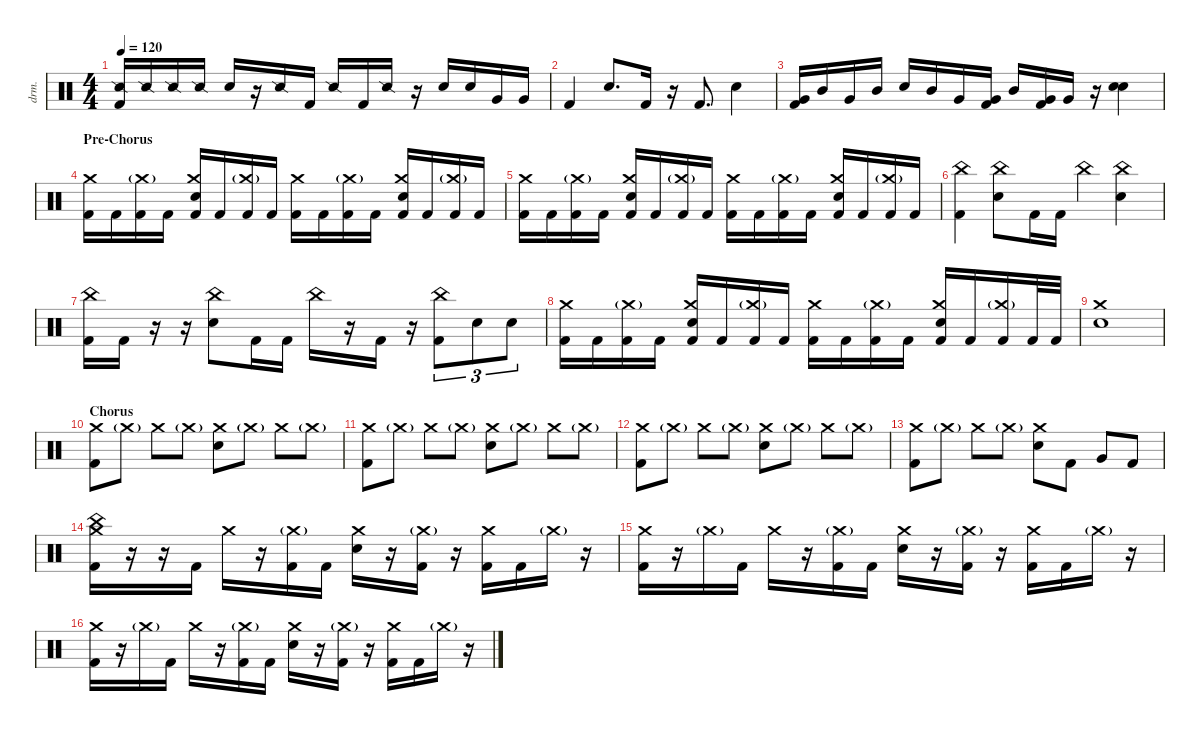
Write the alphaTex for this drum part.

\defaultSystemsLayout 4
\hideDynamics
\bracketExtendMode nobrackets
\track ("Drums - Mario" "drm.") {instrument percussion}
\staff {score}
\articulation defaults
\ts (4 4)
\tempo 120
\clef neutral
\ks c
("Kick (hit) 2" "Snare (side stick) 2").16{dy ff} "Snare (side stick) 2".16 "Snare (side stick) 2".16 "Snare (side stick) 2".16 "Snare (hit) 2".16 r.16 "Snare (side stick) 2".16 "Kick (hit) 2".16 "Snare (side stick) 2".16 "Kick (hit) 2".16 "Snare (side stick) 2".16 r.16 "Snare (hit) 2".16 "Snare (hit) 2".16 "Very Low Tom (hit)".16 "Very Low Tom (hit)".16 |
"Kick (hit) 2".4 "Snare (hit) 2".8{d} "Kick (hit) 2".16 r.16 "Kick (hit) 2".8{d} "Snare (hit) 2".4 |
("Kick (hit) 2" "Very Low Tom (hit)").16 "Mid Tom (hit)".16 "Very Low Tom (hit)".16 "Mid Tom (hit)".16 "Snare (hit) 2".16 "Mid Tom (hit)".16 "Very Low Tom (hit)".16 ("Very Low Tom (hit)" "Kick (hit) 2").16 "Mid Tom (hit)".16 ("Very Low Tom (hit)" "Kick (hit) 2").16 "Very Low Tom (hit)".16 r.16 ("Snare (hit) 2" "Snare (hit) 2").4 |
\section ("" "Pre-Chorus")
("Kick (hit) 2" "Crash medium (hit)").16{beam Down} "Kick (hit) 2".16{beam Down} ("Kick (hit) 2" "Crash medium (hit)"{g}).16{beam Down} "Kick (hit) 2".16{beam Down} ("Kick (hit) 2" "Crash medium (hit)" "Snare (hit) 2").16{beam Up} "Kick (hit) 2".16{beam Up} ("Kick (hit) 2" "Crash medium (hit)"{g}).16{beam Up} "Kick (hit) 2".16{beam Up} ("Kick (hit) 2" "Crash medium (hit)").16{beam Down} "Kick (hit) 2".16{beam Down} ("Kick (hit) 2" "Crash medium (hit)"{g}).16{beam Down} "Kick (hit) 2".16{beam Down} ("Kick (hit) 2" "Crash medium (hit)" "Snare (hit) 2").16{beam Up} "Kick (hit) 2".16{beam Up} ("Kick (hit) 2" "Crash medium (hit)"{g}).16{beam Up} "Kick (hit) 2".16{beam Up} |
("Kick (hit) 2" "Crash medium (hit)").16{beam Down} "Kick (hit) 2".16{beam Down} ("Kick (hit) 2" "Crash medium (hit)"{g}).16{beam Down} "Kick (hit) 2".16{beam Down} ("Kick (hit) 2" "Crash medium (hit)" "Snare (hit) 2").16{beam Up} "Kick (hit) 2".16{beam Up} ("Kick (hit) 2" "Crash medium (hit)"{g}).16{beam Up} "Kick (hit) 2".16{beam Up} ("Kick (hit) 2" "Crash medium (hit)").16{beam Down} "Kick (hit) 2".16{beam Down} ("Kick (hit) 2" "Crash medium (hit)"{g}).16{beam Down} "Kick (hit) 2".16{beam Down} ("Kick (hit) 2" "Crash medium (hit)" "Snare (hit) 2").16{beam Up} "Kick (hit) 2".16{beam Up} ("Kick (hit) 2" "Crash medium (hit)"{g}).16{beam Up} "Kick (hit) 2".16{beam Up} |
("Kick (hit) 2" "China (hit)").4{beam Down} ("China (hit)" "Snare (hit) 2").8{beam Down} "Kick (hit) 2".16{beam Down} "Kick (hit) 2".16{beam Down} "China (hit)".4{beam Down} ("Snare (hit) 2" "China (hit)").4{beam Down} |
("Kick (hit) 2" "China (hit)").16{beam Down} "Kick (hit) 2".16{beam Down} r.16{beam Down} r.16{beam Down} ("China (hit)" "Snare (hit) 2").8{beam Down} "Kick (hit) 2".16{beam Down} "Kick (hit) 2".16{beam Down} "China (hit)".16{beam Down} r.16{beam Down} "Kick (hit) 2".16{beam Down} r.16{beam Down} ("Kick (hit) 2" "China (hit)").8{tu (3 2) beam Down} "Snare (hit) 2".8{tu (3 2) beam Down} "Snare (hit) 2".8{tu (3 2) beam Down} |
("Kick (hit) 2" "Crash medium (hit)").16{beam Down} "Kick (hit) 2".16{beam Down} ("Kick (hit) 2" "Crash medium (hit)"{g}).16{beam Down} "Kick (hit) 2".16{beam Down} ("Kick (hit) 2" "Crash medium (hit)" "Snare (hit) 2").16{beam Up} "Kick (hit) 2".16{beam Up} ("Kick (hit) 2" "Crash medium (hit)"{g}).16{beam Up} "Kick (hit) 2".16{beam Up} ("Kick (hit) 2" "Crash medium (hit)").16{beam Down} "Kick (hit) 2".16{beam Down} ("Kick (hit) 2" "Crash medium (hit)"{g}).16{beam Down} "Kick (hit) 2".16{beam Down} ("Kick (hit) 2" "Crash medium (hit)" "Snare (hit) 2").16{beam Up} "Kick (hit) 2".16{beam Up} ("Kick (hit) 2" "Crash medium (hit)"{g}).16{beam Up} "Kick (hit) 2".32{beam Up} "Kick (hit) 2".32{beam Up} |
("Snare (hit) 2" "Crash medium (hit)").1{beam Down} |
\section ("" "Chorus")
("Kick (hit) 2" "Crash medium (hit)").8{beam Down} "Crash medium (hit)"{g}.8{beam Down} "Crash medium (hit)".8{beam Down} "Crash medium (hit)"{g}.8{beam Down} ("Crash medium (hit)" "Snare (hit) 2").8{beam Down} "Crash medium (hit)"{g}.8{beam Down} "Crash medium (hit)".8{beam Down} "Crash medium (hit)"{g}.8{beam Down} |
("Kick (hit) 2" "Crash medium (hit)").8{beam Down} "Crash medium (hit)"{g}.8{beam Down} "Crash medium (hit)".8{beam Down} "Crash medium (hit)"{g}.8{beam Down} ("Crash medium (hit)" "Snare (hit) 2").8{beam Down} "Crash medium (hit)"{g}.8{beam Down} "Crash medium (hit)".8{beam Down} "Crash medium (hit)"{g}.8{beam Down} |
("Kick (hit) 2" "Crash medium (hit)").8{beam Down} "Crash medium (hit)"{g}.8{beam Down} "Crash medium (hit)".8{beam Down} "Crash medium (hit)"{g}.8{beam Down} ("Crash medium (hit)" "Snare (hit) 2").8{beam Down} "Crash medium (hit)"{g}.8{beam Down} "Crash medium (hit)".8{beam Down} "Crash medium (hit)"{g}.8{beam Down} |
("Kick (hit) 2" "Crash medium (hit)").8{beam Down} "Crash medium (hit)"{g}.8{beam Down} "Crash medium (hit)".8{beam Down} "Crash medium (hit)"{g}.8{beam Down} ("Crash medium (hit)" "Snare (hit) 2").8{beam Down} "Kick (hit) 2".8{beam Down} "Very Low Tom (hit)".8{beam Up} "Kick (hit) 2".8{beam Up} |
("China (hit)" "Kick (hit) 2" "Crash medium (hit)").16{beam Down} r.16{beam Down} r.16{beam Down} "Kick (hit) 2".16{beam Down} "Crash medium (hit)".16{beam Down} r.16{beam Down} ("Kick (hit) 2" "Crash medium (hit)"{g}).16{beam Down} "Kick (hit) 2".16{beam Down} ("Snare (hit) 2" "Crash medium (hit)").16{beam Down} r.16{beam Down} ("Kick (hit) 2" "Crash medium (hit)"{g}).16{beam Down} r.16{beam Down} ("Kick (hit) 2" "Crash medium (hit)").16{beam Down} "Kick (hit) 2".16{beam Down} "Crash medium (hit)"{g}.16{beam Down} r.16{beam Down} |
("Kick (hit) 2" "Crash medium (hit)").16{beam Down} r.16{beam Down} "Crash medium (hit)"{g}.16{beam Down} "Kick (hit) 2".16{beam Down} "Crash medium (hit)".16{beam Down} r.16{beam Down} ("Kick (hit) 2" "Crash medium (hit)"{g}).16{beam Down} "Kick (hit) 2".16{beam Down} ("Snare (hit) 2" "Crash medium (hit)").16{beam Down} r.16{beam Down} ("Kick (hit) 2" "Crash medium (hit)"{g}).16{beam Down} r.16{beam Down} ("Kick (hit) 2" "Crash medium (hit)").16{beam Down} "Kick (hit) 2".16{beam Down} "Crash medium (hit)"{g}.16{beam Down} r.16{beam Down} |
("Kick (hit) 2" "Crash medium (hit)").16{beam Down} r.16{beam Down} "Crash medium (hit)"{g}.16{beam Down} "Kick (hit) 2".16{beam Down} "Crash medium (hit)".16{beam Down} r.16{beam Down} ("Kick (hit) 2" "Crash medium (hit)"{g}).16{beam Down} "Kick (hit) 2".16{beam Down} ("Snare (hit) 2" "Crash medium (hit)").16{beam Down} r.16{beam Down} ("Kick (hit) 2" "Crash medium (hit)"{g}).16{beam Down} r.16{beam Down} ("Kick (hit) 2" "Crash medium (hit)").16{beam Down} "Kick (hit) 2".16{beam Down} "Crash medium (hit)"{g}.16{beam Down} r.16{beam Down}
